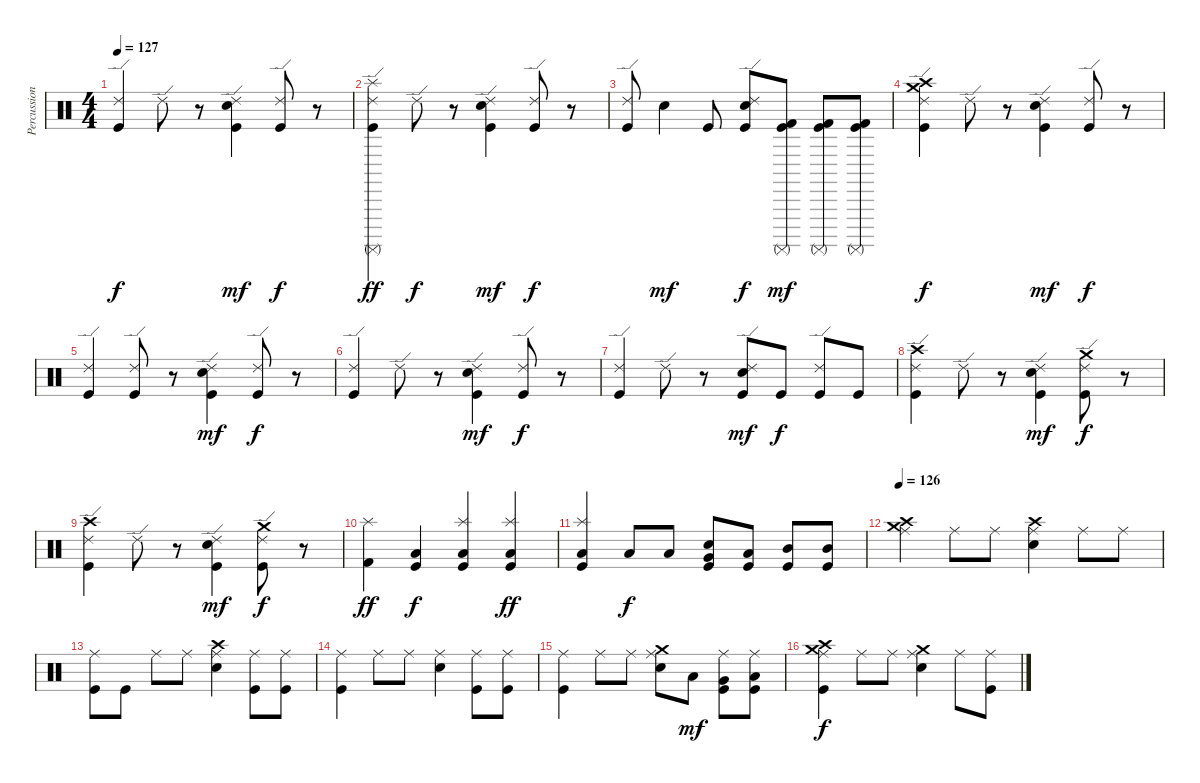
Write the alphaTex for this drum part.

\track ("Percussion" "Percussion") {instrument percussion}
\staff {score}
\articulation defaults
\ts (4 4)
\tempo 127
\clef neutral
\ks c
("Ride (edge) 2" "Kick (hit)").4{dy f} "Ride (edge) 2".8 r.8 ("Ride (edge) 2" "Kick (hit)" "Electric Snare (hit)").4{dy mf} ("Ride (edge) 2" "Kick (hit)").8{dy f} r.8 |
("Surdo (mute)" "Ride (edge) 2" "Kick (hit)" "Splash (hit)").4{dy ff} "Ride (edge) 2".8{dy f} r.8 ("Ride (edge) 2" "Kick (hit)" "Electric Snare (hit)").4{dy mf} ("Ride (edge) 2" "Kick (hit)").8{dy f} r.8 |
("Ride (edge) 2" "Kick (hit)").8 "Electric Snare (hit)".4{dy mf} "Kick (hit)".8 ("Ride (edge) 2" "Kick (hit)" "Electric Snare (hit)").8{dy f} ("Kick (hit) 2" "Kick (hit)" "Surdo (mute)").8{dy mf} ("Kick (hit) 2" "Kick (hit)" "Surdo (mute)").8 ("Kick (hit) 2" "Kick (hit)" "Surdo (mute)").8 |
("Ride (edge) 2" "Kick (hit)" "Crash medium (hit)" "Crash high (hit)").4{dy f} "Ride (edge) 2".8 r.8 ("Ride (edge) 2" "Kick (hit)" "Electric Snare (hit)").4{dy mf} ("Ride (edge) 2" "Kick (hit)").8{dy f} r.8 |
("Ride (edge) 2" "Kick (hit)").4 ("Ride (edge) 2" "Kick (hit)").8 r.8 ("Ride (edge) 2" "Kick (hit)" "Electric Snare (hit)").4{dy mf} ("Ride (edge) 2" "Kick (hit)").8{dy f} r.8 |
("Ride (edge) 2" "Kick (hit)").4 "Ride (edge) 2".8 r.8 ("Ride (edge) 2" "Kick (hit)" "Electric Snare (hit)").4{dy mf} ("Ride (edge) 2" "Kick (hit)").8{dy f} r.8 |
("Ride (edge) 2" "Kick (hit)").4 "Ride (edge) 2".8 r.8 ("Ride (edge) 2" "Kick (hit)" "Electric Snare (hit)").8{dy mf} "Kick (hit)".8{dy f} ("Ride (edge) 2" "Kick (hit)").8 "Kick (hit)".8 |
("Ride (edge) 2" "Kick (hit)" "Crash high (hit)").4 "Ride (edge) 2".8 r.8 ("Ride (edge) 2" "Kick (hit)" "Electric Snare (hit)").4{dy mf} ("Ride (edge) 2" "Kick (hit)" "Crash medium (hit)").8{dy f} r.8 |
("Ride (edge) 2" "Kick (hit)" "Crash high (hit)").4 "Ride (edge) 2".8 r.8 ("Ride (edge) 2" "Kick (hit)" "Electric Snare (hit)").4{dy mf} ("Ride (edge) 2" "Kick (hit)" "Crash medium (hit)").8{dy f} r.8 |
("Splash (hit)" "Kick (hit) 2").4{dy ff} ("Kick (hit)" "Low Floor Tom (hit)").4{dy f} ("Splash (hit)" "Kick (hit)" "Low Floor Tom (hit)").4 ("Splash (hit)" "Kick (hit)" "Low Floor Tom (hit)").4{dy ff} |
("Splash (hit)" "Kick (hit)" "Low Floor Tom (hit)").4 "Low Floor Tom (hit)".8{dy f} "Low Floor Tom (hit)".8 ("Electric Snare (hit)" "Kick (hit)" "Very Low Tom (hit)").8 ("Kick (hit)" "Low Tom (hit)").8 ("Kick (hit)" "Mid Tom (hit)").8 ("Kick (hit)" "Mid Tom (hit)").8 |
\tempo 126
("Ride (middle)" "Crash medium (hit)" "Crash high (hit)").4 "Ride (middle)".8 "Ride (middle)".8 ("Ride (middle)" "Snare (hit) 2" "Crash high (hit)").4 "Ride (middle)".8 "Ride (middle)".8 |
("Ride (middle)" "Kick (hit)").8 "Kick (hit)".8 "Ride (middle)".8 "Ride (middle)".8 ("Ride (middle)" "Electric Snare (hit)" "Crash high (hit)").4 ("Ride (middle)" "Kick (hit)").8 ("Ride (middle)" "Kick (hit)").8 |
("Ride (middle)" "Kick (hit)").4 "Ride (middle)".8 "Ride (middle)".8 ("Ride (middle)" "Electric Snare (hit)").4 ("Ride (middle)" "Kick (hit)").8 ("Ride (middle)" "Kick (hit)").8 |
("Ride (middle)" "Kick (hit)").4 "Ride (middle)".8 "Ride (middle)".8 ("Ride (middle)" "Electric Snare (hit)" "Crash medium (hit)").8 "Low Tom (hit)".8{dy mf} ("Ride (middle)" "Kick (hit)" "Very Low Tom (hit)").8 ("Ride (middle)" "Kick (hit)" "Low Floor Tom (hit)").8 |
("Ride (middle)" "Kick (hit)" "Crash medium (hit)" "Crash high (hit)").4{dy f} "Ride (middle)".8 "Ride (middle)".8 ("Ride (middle)" "Electric Snare (hit)" "Crash medium (hit)").4 "Ride (middle)".8 ("Ride (middle)" "Kick (hit)").8
